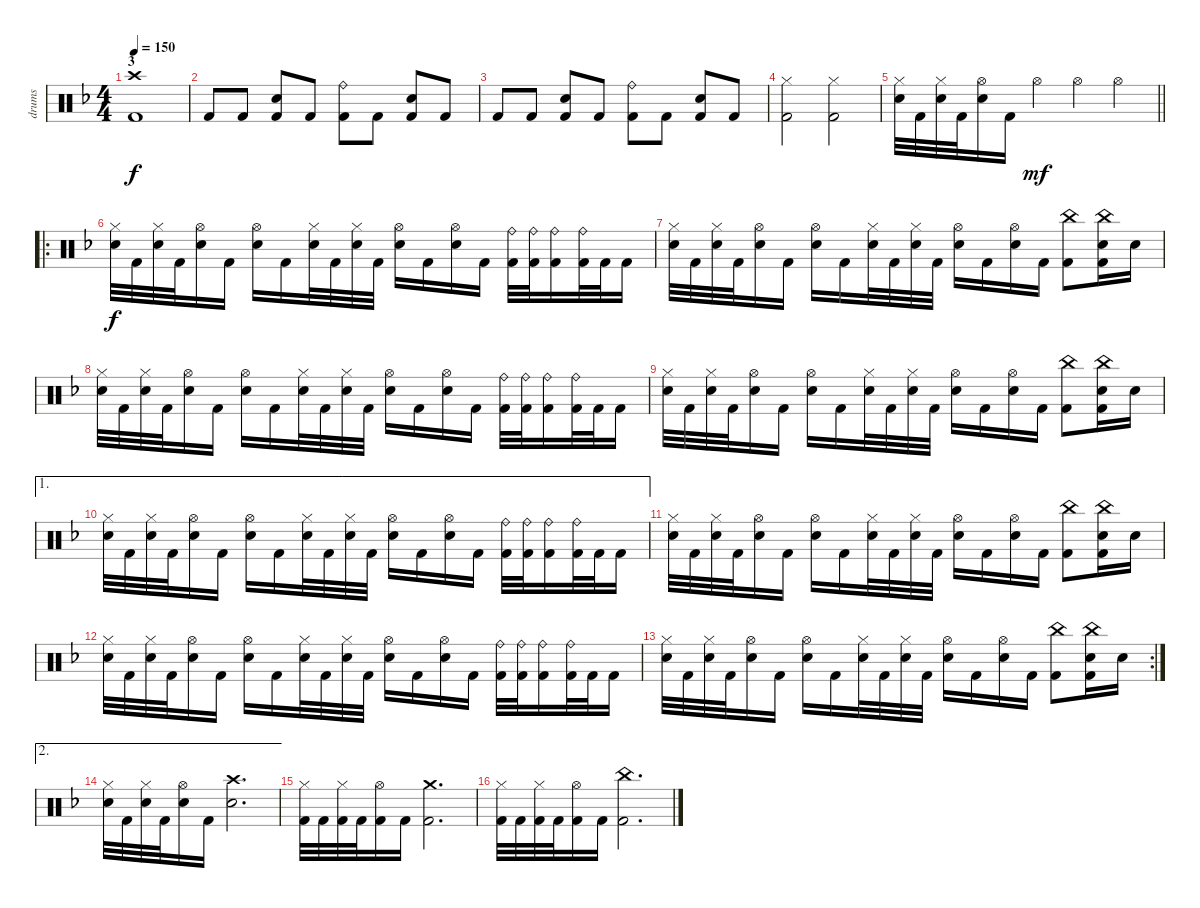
\track ("drums" "drums") {instrument percussion}
\staff {score}
\articulation defaults
\ts (4 4)
\section ("" "3")
\tempo 150
\clef neutral
\ks dminor
("Crash high (hit)" "Kick (hit) 2").1{dy f} |
"Kick (hit) 2".8{volume 8} "Kick (hit) 2".8 ("Electric Snare (hit)" "Kick (hit) 2").8 "Kick (hit) 2".8 ("Ride (bell)" "Kick (hit) 2").8 "Kick (hit) 2".8 ("Electric Snare (hit)" "Kick (hit) 2").8 "Kick (hit) 2".8 |
"Kick (hit) 2".8 "Kick (hit) 2".8 ("Electric Snare (hit)" "Kick (hit) 2").8 "Kick (hit) 2".8 ("Ride (bell)" "Kick (hit) 2").8 "Kick (hit) 2".8 ("Electric Snare (hit)" "Kick (hit) 2").8 "Kick (hit) 2".8 |
("Hi-Hat (closed)" "Kick (hit) 2").2{volume 16} ("Hi-Hat (closed)" "Kick (hit) 2").2 |
\barLineRight lightlight
("Hi-Hat (closed)" "Electric Snare (hit)").32 "Kick (hit) 2".32 ("Hi-Hat (closed)" "Electric Snare (hit)").32 "Kick (hit) 2".32 ("Hi-Hat (open)" "Electric Snare (hit)").16 "Kick (hit) 2".16 "Hi-Hat (open)".4{dy mf} "Hi-Hat (open)".4 "Hi-Hat (open)".4 |
\ro
("Hi-Hat (closed)" "Electric Snare (hit)").32{dy f} "Kick (hit) 2".32 ("Hi-Hat (closed)" "Electric Snare (hit)").32 "Kick (hit) 2".32 ("Hi-Hat (open)" "Electric Snare (hit)").16 "Kick (hit) 2".16 ("Hi-Hat (open)" "Electric Snare (hit)").16 "Kick (hit) 2".16 ("Hi-Hat (closed)" "Electric Snare (hit)").32 "Kick (hit) 2".32 ("Hi-Hat (closed)" "Electric Snare (hit)").32 "Kick (hit) 2".32 ("Hi-Hat (open)" "Electric Snare (hit)").16 "Kick (hit) 2".16 ("Hi-Hat (open)" "Electric Snare (hit)").16 "Kick (hit) 2".16 ("Ride (bell)" "Kick (hit) 2").32 ("Ride (bell)" "Kick (hit) 2").32 ("Ride (bell)" "Kick (hit) 2").16 ("Ride (bell)" "Kick (hit) 2").32 "Kick (hit) 2".32 "Kick (hit) 2".16 |
("Hi-Hat (closed)" "Electric Snare (hit)").32 "Kick (hit) 2".32 ("Hi-Hat (closed)" "Electric Snare (hit)").32 "Kick (hit) 2".32 ("Hi-Hat (open)" "Electric Snare (hit)").16 "Kick (hit) 2".16 ("Hi-Hat (open)" "Electric Snare (hit)").16 "Kick (hit) 2".16 ("Hi-Hat (closed)" "Electric Snare (hit)").32 "Kick (hit) 2".32 ("Hi-Hat (closed)" "Electric Snare (hit)").32 "Kick (hit) 2".32 ("Hi-Hat (open)" "Electric Snare (hit)").16 "Kick (hit) 2".16 ("Hi-Hat (open)" "Electric Snare (hit)").16 "Kick (hit) 2".16 ("China (hit)" "Kick (hit) 2").8 ("China (hit)" "Electric Snare (hit)" "Kick (hit) 2").16 "Electric Snare (hit)".16 |
("Hi-Hat (closed)" "Electric Snare (hit)").32 "Kick (hit) 2".32 ("Hi-Hat (closed)" "Electric Snare (hit)").32 "Kick (hit) 2".32 ("Hi-Hat (open)" "Electric Snare (hit)").16 "Kick (hit) 2".16 ("Hi-Hat (open)" "Electric Snare (hit)").16 "Kick (hit) 2".16 ("Hi-Hat (closed)" "Electric Snare (hit)").32 "Kick (hit) 2".32 ("Hi-Hat (closed)" "Electric Snare (hit)").32 "Kick (hit) 2".32 ("Hi-Hat (open)" "Electric Snare (hit)").16 "Kick (hit) 2".16 ("Hi-Hat (open)" "Electric Snare (hit)").16 "Kick (hit) 2".16 ("Ride (bell)" "Kick (hit) 2").32 ("Ride (bell)" "Kick (hit) 2").32 ("Ride (bell)" "Kick (hit) 2").16 ("Ride (bell)" "Kick (hit) 2").32 "Kick (hit) 2".32 "Kick (hit) 2".16 |
("Hi-Hat (closed)" "Electric Snare (hit)").32 "Kick (hit) 2".32 ("Hi-Hat (closed)" "Electric Snare (hit)").32 "Kick (hit) 2".32 ("Hi-Hat (open)" "Electric Snare (hit)").16 "Kick (hit) 2".16 ("Hi-Hat (open)" "Electric Snare (hit)").16 "Kick (hit) 2".16 ("Hi-Hat (closed)" "Electric Snare (hit)").32 "Kick (hit) 2".32 ("Hi-Hat (closed)" "Electric Snare (hit)").32 "Kick (hit) 2".32 ("Hi-Hat (open)" "Electric Snare (hit)").16 "Kick (hit) 2".16 ("Hi-Hat (open)" "Electric Snare (hit)").16 "Kick (hit) 2".16 ("China (hit)" "Kick (hit) 2").8 ("China (hit)" "Electric Snare (hit)" "Kick (hit) 2").16 "Electric Snare (hit)".16 |
\ae 1
("Hi-Hat (closed)" "Electric Snare (hit)").32 "Kick (hit) 2".32 ("Hi-Hat (closed)" "Electric Snare (hit)").32 "Kick (hit) 2".32 ("Hi-Hat (open)" "Electric Snare (hit)").16 "Kick (hit) 2".16 ("Hi-Hat (open)" "Electric Snare (hit)").16 "Kick (hit) 2".16 ("Hi-Hat (closed)" "Electric Snare (hit)").32 "Kick (hit) 2".32 ("Hi-Hat (closed)" "Electric Snare (hit)").32 "Kick (hit) 2".32 ("Hi-Hat (open)" "Electric Snare (hit)").16 "Kick (hit) 2".16 ("Hi-Hat (open)" "Electric Snare (hit)").16 "Kick (hit) 2".16 ("Ride (bell)" "Kick (hit) 2").32 ("Ride (bell)" "Kick (hit) 2").32 ("Ride (bell)" "Kick (hit) 2").16 ("Ride (bell)" "Kick (hit) 2").32 "Kick (hit) 2".32 "Kick (hit) 2".16 |
("Hi-Hat (closed)" "Electric Snare (hit)").32 "Kick (hit) 2".32 ("Hi-Hat (closed)" "Electric Snare (hit)").32 "Kick (hit) 2".32 ("Hi-Hat (open)" "Electric Snare (hit)").16 "Kick (hit) 2".16 ("Hi-Hat (open)" "Electric Snare (hit)").16 "Kick (hit) 2".16 ("Hi-Hat (closed)" "Electric Snare (hit)").32 "Kick (hit) 2".32 ("Hi-Hat (closed)" "Electric Snare (hit)").32 "Kick (hit) 2".32 ("Hi-Hat (open)" "Electric Snare (hit)").16 "Kick (hit) 2".16 ("Hi-Hat (open)" "Electric Snare (hit)").16 "Kick (hit) 2".16 ("China (hit)" "Kick (hit) 2").8 ("China (hit)" "Electric Snare (hit)" "Kick (hit) 2").16 "Electric Snare (hit)".16 |
("Hi-Hat (closed)" "Electric Snare (hit)").32 "Kick (hit) 2".32 ("Hi-Hat (closed)" "Electric Snare (hit)").32 "Kick (hit) 2".32 ("Hi-Hat (open)" "Electric Snare (hit)").16 "Kick (hit) 2".16 ("Hi-Hat (open)" "Electric Snare (hit)").16 "Kick (hit) 2".16 ("Hi-Hat (closed)" "Electric Snare (hit)").32 "Kick (hit) 2".32 ("Hi-Hat (closed)" "Electric Snare (hit)").32 "Kick (hit) 2".32 ("Hi-Hat (open)" "Electric Snare (hit)").16 "Kick (hit) 2".16 ("Hi-Hat (open)" "Electric Snare (hit)").16 "Kick (hit) 2".16 ("Ride (bell)" "Kick (hit) 2").32 ("Ride (bell)" "Kick (hit) 2").32 ("Ride (bell)" "Kick (hit) 2").16 ("Ride (bell)" "Kick (hit) 2").32 "Kick (hit) 2".32 "Kick (hit) 2".16 |
\rc 2
("Hi-Hat (closed)" "Electric Snare (hit)").32 "Kick (hit) 2".32 ("Hi-Hat (closed)" "Electric Snare (hit)").32 "Kick (hit) 2".32 ("Hi-Hat (open)" "Electric Snare (hit)").16 "Kick (hit) 2".16 ("Hi-Hat (open)" "Electric Snare (hit)").16 "Kick (hit) 2".16 ("Hi-Hat (closed)" "Electric Snare (hit)").32 "Kick (hit) 2".32 ("Hi-Hat (closed)" "Electric Snare (hit)").32 "Kick (hit) 2".32 ("Hi-Hat (open)" "Electric Snare (hit)").16 "Kick (hit) 2".16 ("Hi-Hat (open)" "Electric Snare (hit)").16 "Kick (hit) 2".16 ("China (hit)" "Kick (hit) 2").8 ("China (hit)" "Electric Snare (hit)" "Kick (hit) 2").16 "Electric Snare (hit)".16 |
\ae 2
("Hi-Hat (closed)" "Electric Snare (hit)").32 "Kick (hit) 2".32 ("Hi-Hat (closed)" "Electric Snare (hit)").32 "Kick (hit) 2".32 ("Hi-Hat (open)" "Electric Snare (hit)").16 "Kick (hit) 2".16 ("Crash high (hit)" "Electric Snare (hit)").2{d} |
("Hi-Hat (closed)" "Kick (hit) 2").32 "Kick (hit) 2".32 ("Hi-Hat (closed)" "Kick (hit) 2").32 "Kick (hit) 2".32 ("Hi-Hat (open)" "Kick (hit) 2").16 "Kick (hit) 2".16 ("Crash medium (hit)" "Kick (hit) 2").2{d} |
("Hi-Hat (closed)" "Kick (hit) 2").32 "Kick (hit) 2".32 ("Hi-Hat (closed)" "Kick (hit) 2").32 "Kick (hit) 2".32 ("Hi-Hat (open)" "Kick (hit) 2").16 "Kick (hit) 2".16 ("China (hit)" "Kick (hit) 2").2{d}
